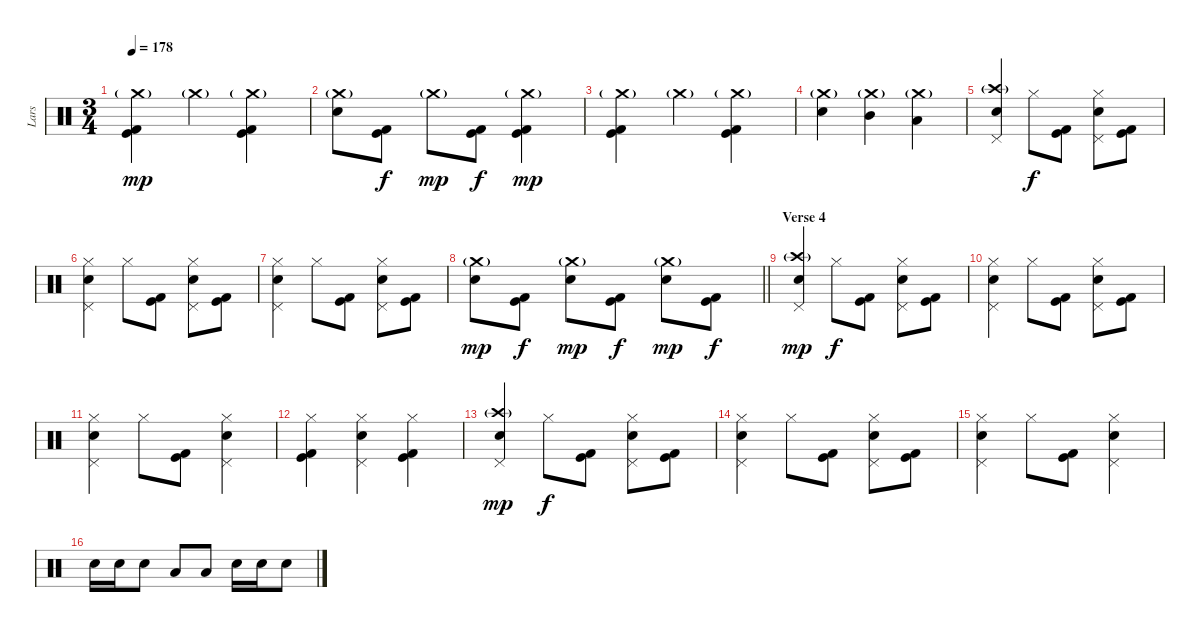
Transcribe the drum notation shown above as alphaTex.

\track ("Lars" "Lars") {instrument percussion}
\staff {score}
\articulation defaults
\ts (3 4)
\tempo 178
\clef neutral
\ks c
("Crash medium (hit)"{g} "Kick (hit)" "Kick (hit) 2").4{dy mp} "Crash medium (hit)"{g}.4 ("Crash medium (hit)"{g} "Kick (hit)" "Kick (hit) 2").4 |
("Crash medium (hit)"{g} "Electric Snare (hit)").8 ("Kick (hit)" "Kick (hit) 2").8{dy f} "Crash medium (hit)"{g}.8{dy mp} ("Kick (hit)" "Kick (hit) 2").8{dy f} ("Crash medium (hit)"{g} "Kick (hit)" "Kick (hit) 2").4{dy mp} |
("Crash medium (hit)"{g} "Kick (hit)" "Kick (hit) 2").4 "Crash medium (hit)"{g}.4 ("Crash medium (hit)"{g} "Kick (hit)" "Kick (hit) 2").4 |
("Crash medium (hit)"{g} "Electric Snare (hit)").4 ("Crash medium (hit)"{g} "Mid Tom (hit)").4 ("Crash medium (hit)"{g} "Low Tom (hit)").4 |
("Crash high (hit)"{g} "Pedal Hi-Hat (hit)" "Electric Snare (hit)").4 "Hi-Hat (closed)".8{dy f} ("Kick (hit)" "Kick (hit) 2").8 ("Hi-Hat (closed)" "Pedal Hi-Hat (hit)" "Electric Snare (hit)").8 ("Kick (hit)" "Kick (hit) 2").8 |
("Hi-Hat (closed)" "Pedal Hi-Hat (hit)" "Electric Snare (hit)").4 "Hi-Hat (closed)".8 ("Kick (hit)" "Kick (hit) 2").8 ("Hi-Hat (closed)" "Pedal Hi-Hat (hit)" "Electric Snare (hit)").8 ("Kick (hit)" "Kick (hit) 2").8 |
("Hi-Hat (closed)" "Pedal Hi-Hat (hit)" "Electric Snare (hit)").4 "Hi-Hat (closed)".8 ("Kick (hit)" "Kick (hit) 2").8 ("Hi-Hat (closed)" "Pedal Hi-Hat (hit)" "Electric Snare (hit)").8 ("Kick (hit)" "Kick (hit) 2").8 |
\barLineRight lightlight
("Crash medium (hit)"{g} "Electric Snare (hit)").8{dy mp} ("Kick (hit)" "Kick (hit) 2").8{dy f} ("Crash medium (hit)"{g} "Electric Snare (hit)").8{dy mp} ("Kick (hit)" "Kick (hit) 2").8{dy f} ("Crash medium (hit)"{g} "Electric Snare (hit)").8{dy mp} ("Kick (hit)" "Kick (hit) 2").8{dy f} |
\section ("" "Verse 4")
("Crash high (hit)"{g} "Pedal Hi-Hat (hit)" "Electric Snare (hit)").4{dy mp} "Hi-Hat (closed)".8{dy f} ("Kick (hit)" "Kick (hit) 2").8 ("Hi-Hat (closed)" "Pedal Hi-Hat (hit)" "Electric Snare (hit)").8 ("Kick (hit)" "Kick (hit) 2").8 |
("Hi-Hat (closed)" "Pedal Hi-Hat (hit)" "Electric Snare (hit)").4 "Hi-Hat (closed)".8 ("Kick (hit)" "Kick (hit) 2").8 ("Hi-Hat (closed)" "Pedal Hi-Hat (hit)" "Electric Snare (hit)").8 ("Kick (hit)" "Kick (hit) 2").8 |
("Hi-Hat (closed)" "Pedal Hi-Hat (hit)" "Electric Snare (hit)").4 "Hi-Hat (closed)".8 ("Kick (hit)" "Kick (hit) 2").8 ("Hi-Hat (closed)" "Pedal Hi-Hat (hit)" "Electric Snare (hit)").4 |
("Hi-Hat (closed)" "Kick (hit)" "Kick (hit) 2").4 ("Hi-Hat (closed)" "Pedal Hi-Hat (hit)" "Electric Snare (hit)").4 ("Hi-Hat (closed)" "Kick (hit)" "Kick (hit) 2").4 |
("Crash high (hit)"{g} "Pedal Hi-Hat (hit)" "Electric Snare (hit)").4{dy mp} "Hi-Hat (closed)".8{dy f} ("Kick (hit)" "Kick (hit) 2").8 ("Hi-Hat (closed)" "Pedal Hi-Hat (hit)" "Electric Snare (hit)").8 ("Kick (hit)" "Kick (hit) 2").8 |
("Hi-Hat (closed)" "Pedal Hi-Hat (hit)" "Electric Snare (hit)").4 "Hi-Hat (closed)".8 ("Kick (hit)" "Kick (hit) 2").8 ("Hi-Hat (closed)" "Pedal Hi-Hat (hit)" "Electric Snare (hit)").8 ("Kick (hit)" "Kick (hit) 2").8 |
("Hi-Hat (closed)" "Pedal Hi-Hat (hit)" "Electric Snare (hit)").4 "Hi-Hat (closed)".8 ("Kick (hit)" "Kick (hit) 2").8 ("Hi-Hat (closed)" "Pedal Hi-Hat (hit)" "Electric Snare (hit)").4 |
"Electric Snare (hit)".16 "Electric Snare (hit)".16 "Electric Snare (hit)".8 "Low Tom (hit)".8 "Low Tom (hit)".8 "Electric Snare (hit)".16 "Electric Snare (hit)".16 "Electric Snare (hit)".8
